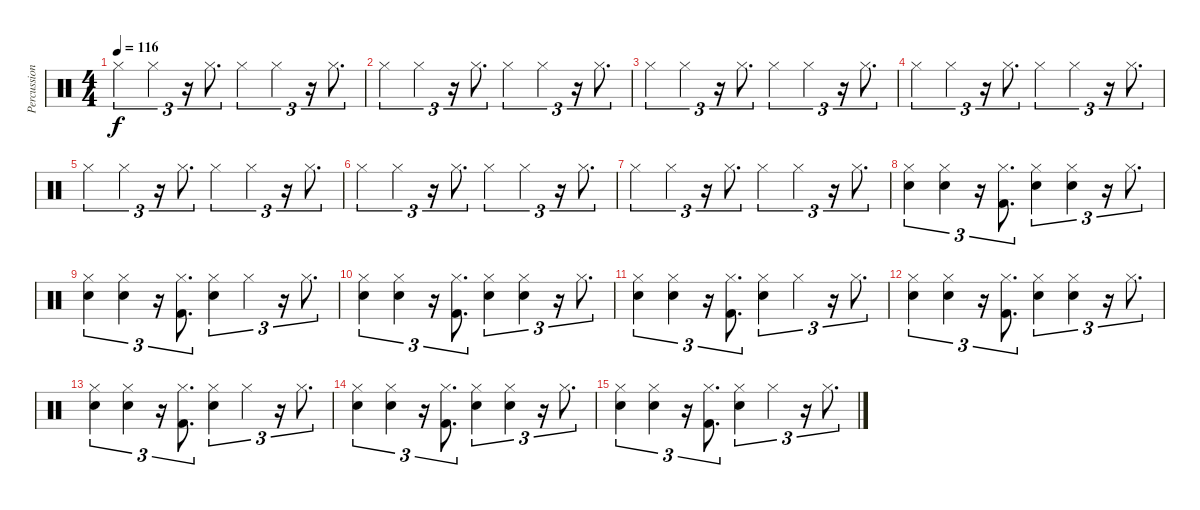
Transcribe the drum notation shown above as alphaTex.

\track ("Percussioni" "Percussion") {instrument percussion}
\staff {score}
\articulation defaults
\ts (4 4)
\tempo 116
\clef neutral
\ks c "Hi-Hat (closed)".4{tu (3 2) dy f} "Hi-Hat (closed)".4{tu (3 2)}
r.16{tu (3 2)} "Hi-Hat (closed)".8{d tu (3 2)} "Hi-Hat (closed)".4{tu (3 2)} "Hi-Hat (closed)".4{tu (3 2)} r.16{tu (3 2)} "Hi-Hat (closed)".8{d tu (3 2)} |
"Hi-Hat (closed)".4{tu (3 2)} "Hi-Hat (closed)".4{tu (3 2)} r.16{tu (3 2)} "Hi-Hat (closed)".8{d tu (3 2)} "Hi-Hat (closed)".4{tu (3 2)} "Hi-Hat (closed)".4{tu (3 2)} r.16{tu (3 2)} "Hi-Hat (closed)".8{d tu (3 2)} |
"Hi-Hat (closed)".4{tu (3 2)} "Hi-Hat (closed)".4{tu (3 2)} r.16{tu (3 2)} "Hi-Hat (closed)".8{d tu (3 2)} "Hi-Hat (closed)".4{tu (3 2)} "Hi-Hat (closed)".4{tu (3 2)} r.16{tu (3 2)} "Hi-Hat (closed)".8{d tu (3 2)} |
"Hi-Hat (closed)".4{tu (3 2)} "Hi-Hat (closed)".4{tu (3 2)} r.16{tu (3 2)} "Hi-Hat (closed)".8{d tu (3 2)} "Hi-Hat (closed)".4{tu (3 2)} "Hi-Hat (closed)".4{tu (3 2)} r.16{tu (3 2)} "Hi-Hat (closed)".8{d tu (3 2)} |
"Hi-Hat (closed)".4{tu (3 2)} "Hi-Hat (closed)".4{tu (3 2)} r.16{tu (3 2)} "Hi-Hat (closed)".8{d tu (3 2)} "Hi-Hat (closed)".4{tu (3 2)} "Hi-Hat (closed)".4{tu (3 2)} r.16{tu (3 2)} "Hi-Hat (closed)".8{d tu (3 2)} |
"Hi-Hat (closed)".4{tu (3 2)} "Hi-Hat (closed)".4{tu (3 2)} r.16{tu (3 2)} "Hi-Hat (closed)".8{d tu (3 2)} "Hi-Hat (closed)".4{tu (3 2)} "Hi-Hat (closed)".4{tu (3 2)} r.16{tu (3 2)} "Hi-Hat (closed)".8{d tu (3 2)} |
"Hi-Hat (closed)".4{tu (3 2)} "Hi-Hat (closed)".4{tu (3 2)} r.16{tu (3 2)} "Hi-Hat (closed)".8{d tu (3 2)} "Hi-Hat (closed)".4{tu (3 2)} "Hi-Hat (closed)".4{tu (3 2)} r.16{tu (3 2)} "Hi-Hat (closed)".8{d tu (3 2)} |
("Hi-Hat (closed)" "Snare (hit) 2").4{tu (3 2)} ("Hi-Hat (closed)" "Snare (hit) 2").4{tu (3 2)} r.16{tu (3 2)} ("Hi-Hat (closed)" "Kick (hit) 2").8{d tu (3 2)} ("Hi-Hat (closed)" "Snare (hit) 2").4{tu (3 2)} ("Hi-Hat (closed)" "Snare (hit) 2").4{tu (3 2)} r.16{tu (3 2)} "Hi-Hat (closed)".8{d tu (3 2)} |
("Hi-Hat (closed)" "Snare (hit) 2").4{tu (3 2)} ("Hi-Hat (closed)" "Snare (hit) 2").4{tu (3 2)} r.16{tu (3 2)} ("Hi-Hat (closed)" "Kick (hit) 2").8{d tu (3 2)} ("Hi-Hat (closed)" "Snare (hit) 2").4{tu (3 2)} "Hi-Hat (closed)".4{tu (3 2)} r.16{tu (3 2)} "Hi-Hat (closed)".8{d tu (3 2)} |
("Hi-Hat (closed)" "Snare (hit) 2").4{tu (3 2)} ("Hi-Hat (closed)" "Snare (hit) 2").4{tu (3 2)} r.16{tu (3 2)} ("Hi-Hat (closed)" "Kick (hit) 2").8{d tu (3 2)} ("Hi-Hat (closed)" "Snare (hit) 2").4{tu (3 2)} ("Hi-Hat (closed)" "Snare (hit) 2").4{tu (3 2)} r.16{tu (3 2)} "Hi-Hat (closed)".8{d tu (3 2)} |
("Hi-Hat (closed)" "Snare (hit) 2").4{tu (3 2)} ("Hi-Hat (closed)" "Snare (hit) 2").4{tu (3 2)} r.16{tu (3 2)} ("Hi-Hat (closed)" "Kick (hit) 2").8{d tu (3 2)} ("Hi-Hat (closed)" "Snare (hit) 2").4{tu (3 2)} "Hi-Hat (closed)".4{tu (3 2)} r.16{tu (3 2)} "Hi-Hat (closed)".8{d tu (3 2)} |
("Hi-Hat (closed)" "Snare (hit) 2").4{tu (3 2)} ("Hi-Hat (closed)" "Snare (hit) 2").4{tu (3 2)} r.16{tu (3 2)} ("Hi-Hat (closed)" "Kick (hit) 2").8{d tu (3 2)} ("Hi-Hat (closed)" "Snare (hit) 2").4{tu (3 2)} ("Hi-Hat (closed)" "Snare (hit) 2").4{tu (3 2)} r.16{tu (3 2)} "Hi-Hat (closed)".8{d tu (3 2)} |
("Hi-Hat (closed)" "Snare (hit) 2").4{tu (3 2)} ("Hi-Hat (closed)" "Snare (hit) 2").4{tu (3 2)} r.16{tu (3 2)} ("Hi-Hat (closed)" "Kick (hit) 2").8{d tu (3 2)} ("Hi-Hat (closed)" "Snare (hit) 2").4{tu (3 2)} "Hi-Hat (closed)".4{tu (3 2)} r.16{tu (3 2)} "Hi-Hat (closed)".8{d tu (3 2)} |
("Hi-Hat (closed)" "Snare (hit) 2").4{tu (3 2)} ("Hi-Hat (closed)" "Snare (hit) 2").4{tu (3 2)} r.16{tu (3 2)} ("Hi-Hat (closed)" "Kick (hit) 2").8{d tu (3 2)} ("Hi-Hat (closed)" "Snare (hit) 2").4{tu (3 2)} ("Hi-Hat (closed)" "Snare (hit) 2").4{tu (3 2)} r.16{tu (3 2)} "Hi-Hat (closed)".8{d tu (3 2)} |
("Hi-Hat (closed)" "Snare (hit) 2").4{tu (3 2)} ("Hi-Hat (closed)" "Snare (hit) 2").4{tu (3 2)} r.16{tu (3 2)} ("Hi-Hat (closed)" "Kick (hit) 2").8{d tu (3 2)} ("Hi-Hat (closed)" "Snare (hit) 2").4{tu (3 2)} "Hi-Hat (closed)".4{tu (3 2)} r.16{tu (3 2)} "Hi-Hat (closed)".8{d tu (3 2)}
